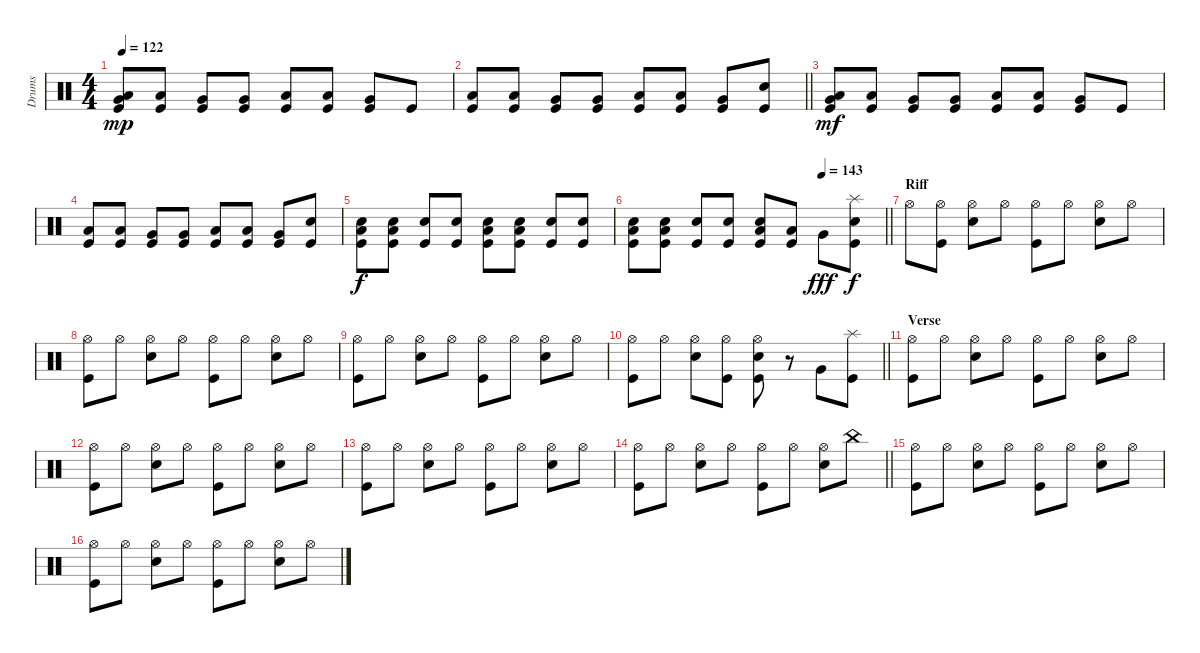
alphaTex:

\track ("Drums" "Drums") {instrument percussion}
\staff
\articulation defaults
\ts (4 4)
\tempo 122
\clef neutral
\ks c
("Very Low Tom (hit)" "Low Tom (hit)" "Kick (hit)").8{dy mp} ("Low Tom (hit)" "Kick (hit)").8 ("Very Low Tom (hit)" "Kick (hit)").8 ("Very Low Tom (hit)" "Kick (hit)").8 ("Low Tom (hit)" "Kick (hit)").8 ("Low Tom (hit)" "Kick (hit)").8 ("Very Low Tom (hit)" "Kick (hit)").8 "Kick (hit)".8 |
\barLineRight lightlight
("Low Tom (hit)" "Kick (hit)").8 ("Low Tom (hit)" "Kick (hit)").8 ("Very Low Tom (hit)" "Kick (hit)").8 ("Very Low Tom (hit)" "Kick (hit)").8 ("Low Tom (hit)" "Kick (hit)").8 ("Low Tom (hit)" "Kick (hit)").8 ("Very Low Tom (hit)" "Kick (hit)").8 ("Snare (hit) 2" "Kick (hit)").8 |
("Very Low Tom (hit)" "Low Tom (hit)" "Kick (hit)").8{dy mf} ("Low Tom (hit)" "Kick (hit)").8 ("Very Low Tom (hit)" "Kick (hit)").8 ("Very Low Tom (hit)" "Kick (hit)").8 ("Low Tom (hit)" "Kick (hit)").8 ("Low Tom (hit)" "Kick (hit)").8 ("Very Low Tom (hit)" "Kick (hit)").8 "Kick (hit)".8 |
("Low Tom (hit)" "Kick (hit)").8 ("Low Tom (hit)" "Kick (hit)").8 ("Very Low Tom (hit)" "Kick (hit)").8 ("Very Low Tom (hit)" "Kick (hit)").8 ("Low Tom (hit)" "Kick (hit)").8 ("Low Tom (hit)" "Kick (hit)").8 ("Very Low Tom (hit)" "Kick (hit)").8 ("Snare (hit) 2" "Kick (hit)").8 |
("Snare (hit) 2" "Low Tom (hit)" "Kick (hit)").8{dy f} ("Snare (hit) 2" "Low Tom (hit)" "Kick (hit)").8 ("Snare (hit) 2" "Kick (hit)").8 ("Snare (hit) 2" "Kick (hit)").8 ("Snare (hit) 2" "Low Tom (hit)" "Kick (hit)").8 ("Snare (hit) 2" "Low Tom (hit)" "Kick (hit)").8 ("Snare (hit) 2" "Kick (hit)").8 ("Snare (hit) 2" "Kick (hit)").8 |
\tempo (143 0.75)
\barLineRight lightlight
("Snare (hit) 2" "Low Tom (hit)" "Kick (hit)").8 ("Snare (hit) 2" "Low Tom (hit)" "Kick (hit)").8 ("Snare (hit) 2" "Kick (hit)").8 ("Snare (hit) 2" "Kick (hit)").8 ("Snare (hit) 2" "Low Tom (hit)" "Kick (hit)").8 ("Low Tom (hit)" "Kick (hit)").8 "Very Low Tom (hit)".8{dy fff} ("Splash (hit)" "Snare (hit) 2" "Kick (hit)").8{dy f} |
\section ("" "Riff")
"Hi-Hat (open)".8 ("Hi-Hat (open)" "Kick (hit)").8 ("Hi-Hat (open)" "Snare (hit) 2").8 "Hi-Hat (open)".8 ("Hi-Hat (open)" "Kick (hit)").8 "Hi-Hat (open)".8 ("Hi-Hat (open)" "Snare (hit) 2").8 "Hi-Hat (open)".8 |
("Hi-Hat (open)" "Kick (hit)").8 "Hi-Hat (open)".8 ("Hi-Hat (open)" "Snare (hit) 2").8 "Hi-Hat (open)".8 ("Hi-Hat (open)" "Kick (hit)").8 "Hi-Hat (open)".8 ("Hi-Hat (open)" "Snare (hit) 2").8 "Hi-Hat (open)".8 |
("Hi-Hat (open)" "Kick (hit)").8 "Hi-Hat (open)".8 ("Hi-Hat (open)" "Snare (hit) 2").8 "Hi-Hat (open)".8 ("Hi-Hat (open)" "Kick (hit)").8 "Hi-Hat (open)".8 ("Hi-Hat (open)" "Snare (hit) 2").8 "Hi-Hat (open)".8 |
\barLineRight lightlight
("Hi-Hat (open)" "Kick (hit)").8 "Hi-Hat (open)".8 ("Hi-Hat (open)" "Snare (hit) 2").8 ("Hi-Hat (open)" "Kick (hit)").8 ("Hi-Hat (open)" "Snare (hit) 2" "Kick (hit)").8 r.8 "Very Low Tom (hit)".8 ("Splash (hit)" "Kick (hit)").8 |
\section ("" "Verse")
("Hi-Hat (open)" "Kick (hit)").8 "Hi-Hat (open)".8 ("Hi-Hat (open)" "Snare (hit) 2").8 "Hi-Hat (open)".8 ("Hi-Hat (open)" "Kick (hit)").8 "Hi-Hat (open)".8 ("Hi-Hat (open)" "Snare (hit) 2").8 "Hi-Hat (open)".8 |
("Hi-Hat (open)" "Kick (hit)").8 "Hi-Hat (open)".8 ("Hi-Hat (open)" "Snare (hit) 2").8 "Hi-Hat (open)".8 ("Hi-Hat (open)" "Kick (hit)").8 "Hi-Hat (open)".8 ("Hi-Hat (open)" "Snare (hit) 2").8 "Hi-Hat (open)".8 |
("Hi-Hat (open)" "Kick (hit)").8 "Hi-Hat (open)".8 ("Hi-Hat (open)" "Snare (hit) 2").8 "Hi-Hat (open)".8 ("Hi-Hat (open)" "Kick (hit)").8 "Hi-Hat (open)".8 ("Hi-Hat (open)" "Snare (hit) 2").8 "Hi-Hat (open)".8 |
\barLineRight lightlight
("Hi-Hat (open)" "Kick (hit)").8 "Hi-Hat (open)".8 ("Hi-Hat (open)" "Snare (hit) 2").8 "Hi-Hat (open)".8 ("Hi-Hat (open)" "Kick (hit)").8 "Hi-Hat (open)".8 ("Hi-Hat (open)" "Snare (hit) 2").8 "China (hit)".8 |
("Hi-Hat (open)" "Kick (hit)").8 "Hi-Hat (open)".8 ("Hi-Hat (open)" "Snare (hit) 2").8 "Hi-Hat (open)".8 ("Hi-Hat (open)" "Kick (hit)").8 "Hi-Hat (open)".8 ("Hi-Hat (open)" "Snare (hit) 2").8 "Hi-Hat (open)".8 |
("Hi-Hat (open)" "Kick (hit)").8 "Hi-Hat (open)".8 ("Hi-Hat (open)" "Snare (hit) 2").8 "Hi-Hat (open)".8 ("Hi-Hat (open)" "Kick (hit)").8 "Hi-Hat (open)".8 ("Hi-Hat (open)" "Snare (hit) 2").8 "Hi-Hat (open)".8
